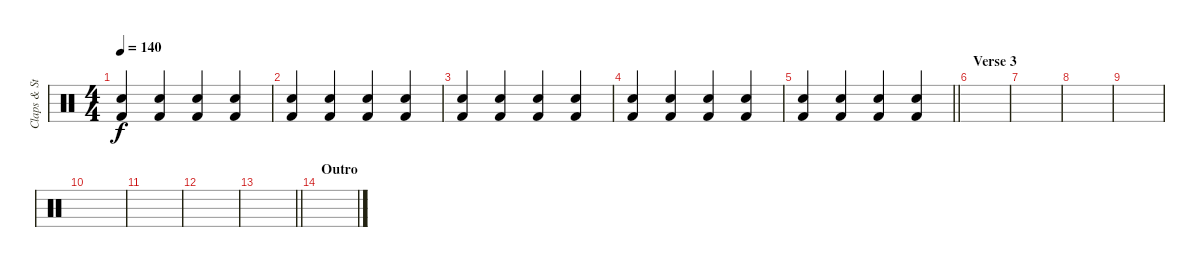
\track ("Claps & Stomps" "Claps & St") {instrument percussion}
\staff {score}
\articulation defaults
\ts (4 4)
\tempo 140
\clef neutral
\ks c
("Hand Clap (hit)" "Kick (hit) 2").4{dy f} ("Hand Clap (hit)" "Kick (hit) 2").4 ("Hand Clap (hit)" "Kick (hit) 2").4 ("Hand Clap (hit)" "Kick (hit) 2").4 |
("Hand Clap (hit)" "Kick (hit) 2").4 ("Hand Clap (hit)" "Kick (hit) 2").4 ("Hand Clap (hit)" "Kick (hit) 2").4 ("Hand Clap (hit)" "Kick (hit) 2").4 |
("Hand Clap (hit)" "Kick (hit) 2").4 ("Hand Clap (hit)" "Kick (hit) 2").4 ("Hand Clap (hit)" "Kick (hit) 2").4 ("Hand Clap (hit)" "Kick (hit) 2").4 |
("Hand Clap (hit)" "Kick (hit) 2").4 ("Hand Clap (hit)" "Kick (hit) 2").4 ("Hand Clap (hit)" "Kick (hit) 2").4 ("Hand Clap (hit)" "Kick (hit) 2").4 |
\barLineRight lightlight
("Hand Clap (hit)" "Kick (hit) 2").4 ("Hand Clap (hit)" "Kick (hit) 2").4 ("Hand Clap (hit)" "Kick (hit) 2").4 ("Hand Clap (hit)" "Kick (hit) 2").4 |
\section ("" "Verse 3")
|
|
|
|
|
|
|
\barLineRight lightlight
|
\section ("" "Outro")
